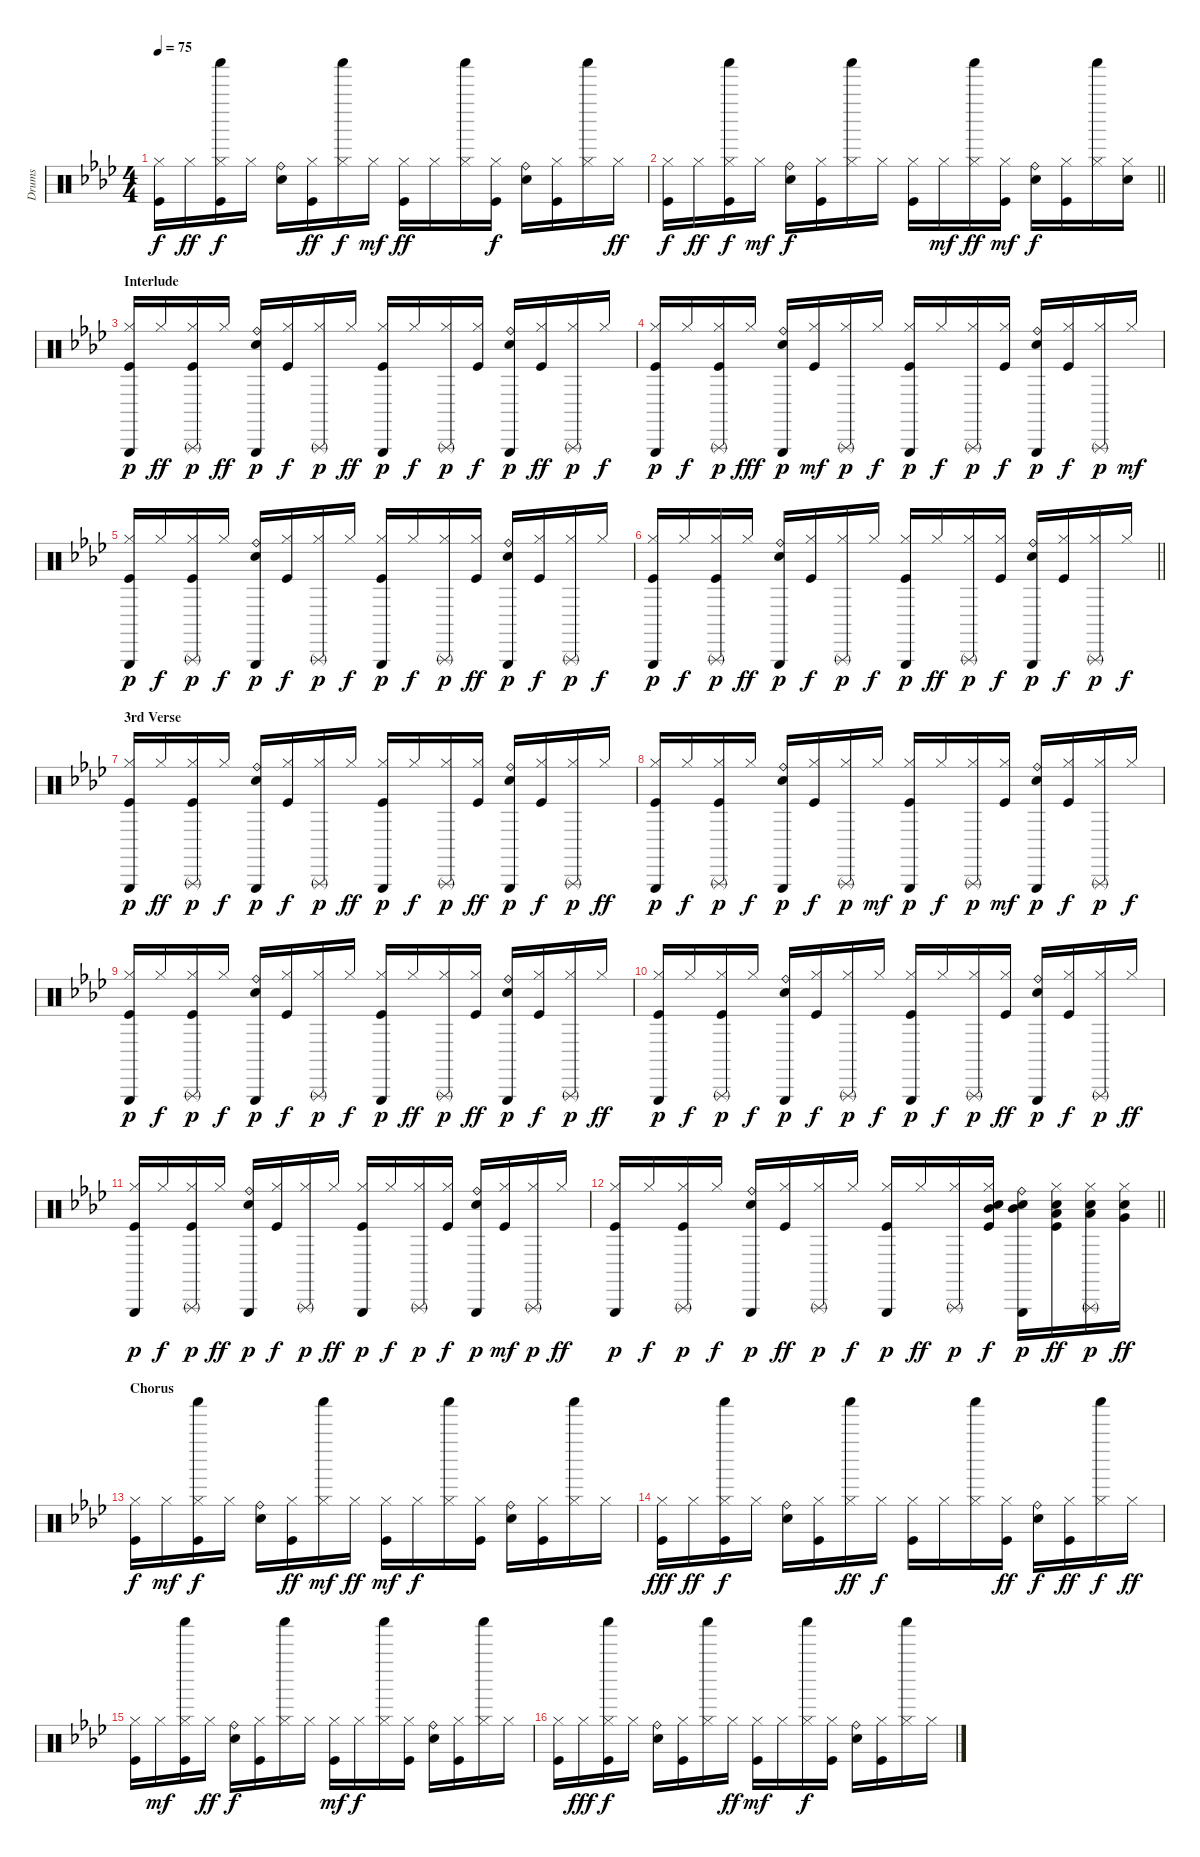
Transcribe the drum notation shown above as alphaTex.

\track ("Drums" "Drums") {instrument percussion}
\staff {score}
\articulation defaults
\ts (4 4)
\tempo 75
\clef neutral
\ks fminor
("Hi-Hat (closed)" "Kick (hit)").16{dy f} "Hi-Hat (closed)".16{dy ff} ("Shaker (hit)" "Hi-Hat (closed)" "Kick (hit)").16{dy f} "Hi-Hat (closed)".16 ("Ride (bell)" "Electric Snare (hit)").16 ("Hi-Hat (closed)" "Kick (hit)").16{dy ff} ("Shaker (hit)" "Hi-Hat (closed)").16{dy f} "Hi-Hat (closed)".16{dy mf} ("Hi-Hat (closed)" "Kick (hit)").16{dy ff} "Hi-Hat (closed)".16 ("Shaker (hit)" "Hi-Hat (closed)").16 ("Hi-Hat (closed)" "Kick (hit)").16{dy f} ("Ride (bell)" "Electric Snare (hit)").16 ("Hi-Hat (closed)" "Kick (hit)").16 ("Shaker (hit)" "Hi-Hat (closed)").16 "Hi-Hat (closed)".16{dy ff} |
\barLineRight lightlight
("Hi-Hat (closed)" "Kick (hit)").16{dy f} "Hi-Hat (closed)".16{dy ff} ("Shaker (hit)" "Hi-Hat (closed)" "Kick (hit)").16{dy f} "Hi-Hat (closed)".16{dy mf} ("Ride (bell)" "Electric Snare (hit)").16{dy f} ("Hi-Hat (closed)" "Kick (hit)").16 ("Shaker (hit)" "Hi-Hat (closed)").16 "Hi-Hat (closed)".16 ("Hi-Hat (closed)" "Kick (hit)").16 "Hi-Hat (closed)".16{dy mf} ("Shaker (hit)" "Hi-Hat (closed)").16{dy ff} ("Hi-Hat (closed)" "Kick (hit)").16{dy mf} ("Ride (bell)" "Electric Snare (hit)").16{dy f} ("Hi-Hat (closed)" "Kick (hit)").16 ("Shaker (hit)" "Hi-Hat (closed)").16 ("Hi-Hat (closed)" "Electric Snare (hit)").16 |
\section ("" "Interlude")
("Hi-Hat (closed)" "Triangle (hit)" "Kick (hit)").16{dy p} "Hi-Hat (closed)".16{dy ff} ("Hi-Hat (closed)" "Triangle (rnute)" "Kick (hit)").16{dy p} "Hi-Hat (closed)".16{dy ff} ("Ride (bell)" "Triangle (hit)" "Electric Snare (hit)").16{dy p} ("Hi-Hat (closed)" "Kick (hit)").16{dy f} ("Hi-Hat (closed)" "Triangle (rnute)").16{dy p} "Hi-Hat (closed)".16{dy ff} ("Hi-Hat (closed)" "Triangle (hit)" "Kick (hit)").16{dy p} "Hi-Hat (closed)".16{dy f} ("Hi-Hat (closed)" "Triangle (rnute)").16{dy p} ("Hi-Hat (closed)" "Kick (hit)").16{dy f} ("Ride (bell)" "Triangle (hit)" "Electric Snare (hit)").16{dy p} ("Hi-Hat (closed)" "Kick (hit)").16{dy ff} ("Hi-Hat (closed)" "Triangle (rnute)").16{dy p} "Hi-Hat (closed)".16{dy f} |
("Hi-Hat (closed)" "Triangle (hit)" "Kick (hit)").16{dy p} "Hi-Hat (closed)".16{dy f} ("Hi-Hat (closed)" "Triangle (rnute)" "Kick (hit)").16{dy p} "Hi-Hat (closed)".16{dy fff} ("Ride (bell)" "Triangle (hit)" "Electric Snare (hit)").16{dy p} ("Hi-Hat (closed)" "Kick (hit)").16{dy mf} ("Hi-Hat (closed)" "Triangle (rnute)").16{dy p} "Hi-Hat (closed)".16{dy f} ("Hi-Hat (closed)" "Triangle (hit)" "Kick (hit)").16{dy p} "Hi-Hat (closed)".16{dy f} ("Hi-Hat (closed)" "Triangle (rnute)").16{dy p} ("Hi-Hat (closed)" "Kick (hit)").16{dy f} ("Ride (bell)" "Triangle (hit)" "Electric Snare (hit)").16{dy p} ("Hi-Hat (closed)" "Kick (hit)").16{dy f} ("Hi-Hat (closed)" "Triangle (rnute)").16{dy p} "Hi-Hat (closed)".16{dy mf} |
("Hi-Hat (closed)" "Triangle (hit)" "Kick (hit)").16{dy p} "Hi-Hat (closed)".16{dy f} ("Hi-Hat (closed)" "Triangle (rnute)" "Kick (hit)").16{dy p} "Hi-Hat (closed)".16{dy f} ("Ride (bell)" "Triangle (hit)" "Electric Snare (hit)").16{dy p} ("Hi-Hat (closed)" "Kick (hit)").16{dy f} ("Hi-Hat (closed)" "Triangle (rnute)").16{dy p} "Hi-Hat (closed)".16{dy f} ("Hi-Hat (closed)" "Triangle (hit)" "Kick (hit)").16{dy p} "Hi-Hat (closed)".16{dy f} ("Hi-Hat (closed)" "Triangle (rnute)").16{dy p} ("Hi-Hat (closed)" "Kick (hit)").16{dy ff} ("Ride (bell)" "Triangle (hit)" "Electric Snare (hit)").16{dy p} ("Hi-Hat (closed)" "Kick (hit)").16{dy f} ("Hi-Hat (closed)" "Triangle (rnute)").16{dy p} "Hi-Hat (closed)".16{dy f} |
\barLineRight lightlight
("Hi-Hat (closed)" "Triangle (hit)" "Kick (hit)").16{dy p} "Hi-Hat (closed)".16{dy f} ("Hi-Hat (closed)" "Triangle (rnute)" "Kick (hit)").16{dy p} "Hi-Hat (closed)".16{dy ff} ("Ride (bell)" "Triangle (hit)" "Electric Snare (hit)").16{dy p} ("Hi-Hat (closed)" "Kick (hit)").16{dy f} ("Hi-Hat (closed)" "Triangle (rnute)").16{dy p} "Hi-Hat (closed)".16{dy f} ("Hi-Hat (closed)" "Triangle (hit)" "Kick (hit)").16{dy p} "Hi-Hat (closed)".16{dy ff} ("Hi-Hat (closed)" "Triangle (rnute)").16{dy p} ("Hi-Hat (closed)" "Kick (hit)").16{dy f} ("Ride (bell)" "Triangle (hit)" "Electric Snare (hit)").16{dy p} ("Hi-Hat (closed)" "Kick (hit)").16{dy f} ("Hi-Hat (closed)" "Triangle (rnute)").16{dy p} "Hi-Hat (closed)".16{dy f} |
\section ("" "3rd Verse")
("Hi-Hat (closed)" "Triangle (hit)" "Kick (hit)").16{dy p} "Hi-Hat (closed)".16{dy ff} ("Hi-Hat (closed)" "Triangle (rnute)" "Kick (hit)").16{dy p} "Hi-Hat (closed)".16{dy f} ("Ride (bell)" "Triangle (hit)" "Electric Snare (hit)").16{dy p} ("Hi-Hat (closed)" "Kick (hit)").16{dy f} ("Hi-Hat (closed)" "Triangle (rnute)").16{dy p} "Hi-Hat (closed)".16{dy ff} ("Hi-Hat (closed)" "Triangle (hit)" "Kick (hit)").16{dy p} "Hi-Hat (closed)".16{dy f} ("Hi-Hat (closed)" "Triangle (rnute)").16{dy p} ("Hi-Hat (closed)" "Kick (hit)").16{dy ff} ("Ride (bell)" "Triangle (hit)" "Electric Snare (hit)").16{dy p} ("Hi-Hat (closed)" "Kick (hit)").16{dy f} ("Hi-Hat (closed)" "Triangle (rnute)").16{dy p} "Hi-Hat (closed)".16{dy ff} |
("Hi-Hat (closed)" "Triangle (hit)" "Kick (hit)").16{dy p} "Hi-Hat (closed)".16{dy f} ("Hi-Hat (closed)" "Triangle (rnute)" "Kick (hit)").16{dy p} "Hi-Hat (closed)".16{dy f} ("Ride (bell)" "Triangle (hit)" "Electric Snare (hit)").16{dy p} ("Hi-Hat (closed)" "Kick (hit)").16{dy f} ("Hi-Hat (closed)" "Triangle (rnute)").16{dy p} "Hi-Hat (closed)".16{dy mf} ("Hi-Hat (closed)" "Triangle (hit)" "Kick (hit)").16{dy p} "Hi-Hat (closed)".16{dy f} ("Hi-Hat (closed)" "Triangle (rnute)").16{dy p} ("Hi-Hat (closed)" "Kick (hit)").16{dy mf} ("Ride (bell)" "Triangle (hit)" "Electric Snare (hit)").16{dy p} ("Hi-Hat (closed)" "Kick (hit)").16{dy f} ("Hi-Hat (closed)" "Triangle (rnute)").16{dy p} "Hi-Hat (closed)".16{dy f} |
("Hi-Hat (closed)" "Triangle (hit)" "Kick (hit)").16{dy p} "Hi-Hat (closed)".16{dy f} ("Hi-Hat (closed)" "Triangle (rnute)" "Kick (hit)").16{dy p} "Hi-Hat (closed)".16{dy f} ("Ride (bell)" "Triangle (hit)" "Electric Snare (hit)").16{dy p} ("Hi-Hat (closed)" "Kick (hit)").16{dy f} ("Hi-Hat (closed)" "Triangle (rnute)").16{dy p} "Hi-Hat (closed)".16{dy f} ("Hi-Hat (closed)" "Triangle (hit)" "Kick (hit)").16{dy p} "Hi-Hat (closed)".16{dy ff} ("Hi-Hat (closed)" "Triangle (rnute)").16{dy p} ("Hi-Hat (closed)" "Kick (hit)").16{dy ff} ("Ride (bell)" "Triangle (hit)" "Electric Snare (hit)").16{dy p} ("Hi-Hat (closed)" "Kick (hit)").16{dy f} ("Hi-Hat (closed)" "Triangle (rnute)").16{dy p} "Hi-Hat (closed)".16{dy ff} |
("Hi-Hat (closed)" "Triangle (hit)" "Kick (hit)").16{dy p} "Hi-Hat (closed)".16{dy f} ("Hi-Hat (closed)" "Triangle (rnute)" "Kick (hit)").16{dy p} "Hi-Hat (closed)".16{dy f} ("Ride (bell)" "Triangle (hit)" "Electric Snare (hit)").16{dy p} ("Hi-Hat (closed)" "Kick (hit)").16{dy f} ("Hi-Hat (closed)" "Triangle (rnute)").16{dy p} "Hi-Hat (closed)".16{dy f} ("Hi-Hat (closed)" "Triangle (hit)" "Kick (hit)").16{dy p} "Hi-Hat (closed)".16{dy f} ("Hi-Hat (closed)" "Triangle (rnute)").16{dy p} ("Hi-Hat (closed)" "Kick (hit)").16{dy ff} ("Ride (bell)" "Triangle (hit)" "Electric Snare (hit)").16{dy p} ("Hi-Hat (closed)" "Kick (hit)").16{dy f} ("Hi-Hat (closed)" "Triangle (rnute)").16{dy p} "Hi-Hat (closed)".16{dy ff} |
("Hi-Hat (closed)" "Triangle (hit)" "Kick (hit)").16{dy p} "Hi-Hat (closed)".16{dy f} ("Hi-Hat (closed)" "Triangle (rnute)" "Kick (hit)").16{dy p} "Hi-Hat (closed)".16{dy ff} ("Ride (bell)" "Triangle (hit)" "Electric Snare (hit)").16{dy p} ("Hi-Hat (closed)" "Kick (hit)").16{dy f} ("Hi-Hat (closed)" "Triangle (rnute)").16{dy p} "Hi-Hat (closed)".16{dy ff} ("Hi-Hat (closed)" "Triangle (hit)" "Kick (hit)").16{dy p} "Hi-Hat (closed)".16{dy f} ("Hi-Hat (closed)" "Triangle (rnute)").16{dy p} ("Hi-Hat (closed)" "Kick (hit)").16{dy f} ("Ride (bell)" "Triangle (hit)" "Electric Snare (hit)").16{dy p} ("Hi-Hat (closed)" "Kick (hit)").16{dy mf} ("Hi-Hat (closed)" "Triangle (rnute)").16{dy p} "Hi-Hat (closed)".16{dy ff} |
\barLineRight lightlight
("Hi-Hat (closed)" "Triangle (hit)" "Kick (hit)").16{dy p} "Hi-Hat (closed)".16{dy f} ("Hi-Hat (closed)" "Triangle (rnute)" "Kick (hit)").16{dy p} "Hi-Hat (closed)".16{dy f} ("Ride (bell)" "Triangle (hit)" "Electric Snare (hit)").16{dy p} ("Hi-Hat (closed)" "Kick (hit)").16{dy ff} ("Hi-Hat (closed)" "Triangle (rnute)").16{dy p} "Hi-Hat (closed)".16{dy f} ("Hi-Hat (closed)" "Triangle (hit)" "Kick (hit)").16{dy p} "Hi-Hat (closed)".16{dy ff} ("Hi-Hat (closed)" "Triangle (rnute)").16{dy p} ("Hi-Hat (closed)" "Electric Snare (hit)" "Kick (hit)" "Mid Tom (hit)").16{dy f} ("Ride (bell)" "Triangle (hit)" "Electric Snare (hit)" "Mid Tom (hit)").16{dy p} ("Hi-Hat (closed)" "Electric Snare (hit)" "Kick (hit)" "Low Tom (hit)").16{dy ff} ("Hi-Hat (closed)" "Triangle (rnute)" "Electric Snare (hit)" "Low Tom (hit)").16{dy p} ("Hi-Hat (closed)" "Electric Snare (hit)" "Very Low Tom (hit)").16{dy ff} |
\section ("" "Chorus")
("Hi-Hat (closed)" "Kick (hit)").16{dy f} "Hi-Hat (closed)".16{dy mf} ("Shaker (hit)" "Hi-Hat (closed)" "Kick (hit)").16{dy f} "Hi-Hat (closed)".16 ("Ride (bell)" "Electric Snare (hit)").16 ("Hi-Hat (closed)" "Kick (hit)").16{dy ff} ("Shaker (hit)" "Hi-Hat (closed)").16{dy mf} "Hi-Hat (closed)".16{dy ff} ("Hi-Hat (closed)" "Kick (hit)").16{dy mf} "Hi-Hat (closed)".16{dy f} ("Shaker (hit)" "Hi-Hat (closed)").16 ("Hi-Hat (closed)" "Kick (hit)").16 ("Ride (bell)" "Electric Snare (hit)").16 ("Hi-Hat (closed)" "Kick (hit)").16 ("Shaker (hit)" "Hi-Hat (closed)").16 "Hi-Hat (closed)".16 |
("Hi-Hat (closed)" "Kick (hit)").16{dy fff} "Hi-Hat (closed)".16{dy ff} ("Shaker (hit)" "Hi-Hat (closed)" "Kick (hit)").16{dy f} "Hi-Hat (closed)".16 ("Ride (bell)" "Electric Snare (hit)").16 ("Hi-Hat (closed)" "Kick (hit)").16 ("Shaker (hit)" "Hi-Hat (closed)").16{dy ff} "Hi-Hat (closed)".16{dy f} ("Hi-Hat (closed)" "Kick (hit)").16 "Hi-Hat (closed)".16 ("Shaker (hit)" "Hi-Hat (closed)").16 ("Hi-Hat (closed)" "Kick (hit)").16{dy ff} ("Ride (bell)" "Electric Snare (hit)").16{dy f} ("Hi-Hat (closed)" "Kick (hit)").16{dy ff} ("Shaker (hit)" "Hi-Hat (closed)").16{dy f} "Hi-Hat (closed)".16{dy ff} |
("Hi-Hat (closed)" "Kick (hit)").16 "Hi-Hat (closed)".16{dy mf} ("Shaker (hit)" "Hi-Hat (closed)" "Kick (hit)").16 "Hi-Hat (closed)".16{dy ff} ("Ride (bell)" "Electric Snare (hit)").16{dy f} ("Hi-Hat (closed)" "Kick (hit)").16 ("Shaker (hit)" "Hi-Hat (closed)").16 "Hi-Hat (closed)".16 ("Hi-Hat (closed)" "Kick (hit)").16{dy mf} "Hi-Hat (closed)".16{dy f} ("Shaker (hit)" "Hi-Hat (closed)").16 ("Hi-Hat (closed)" "Kick (hit)").16 ("Ride (bell)" "Electric Snare (hit)").16 ("Hi-Hat (closed)" "Kick (hit)").16 ("Shaker (hit)" "Hi-Hat (closed)").16 "Hi-Hat (closed)".16 |
("Hi-Hat (closed)" "Kick (hit)").16 "Hi-Hat (closed)".16{dy fff} ("Shaker (hit)" "Hi-Hat (closed)" "Kick (hit)").16{dy f} "Hi-Hat (closed)".16 ("Ride (bell)" "Electric Snare (hit)").16 ("Hi-Hat (closed)" "Kick (hit)").16 ("Shaker (hit)" "Hi-Hat (closed)").16 "Hi-Hat (closed)".16{dy ff} ("Hi-Hat (closed)" "Kick (hit)").16{dy mf} "Hi-Hat (closed)".16 ("Shaker (hit)" "Hi-Hat (closed)").16{dy f} ("Hi-Hat (closed)" "Kick (hit)").16 ("Ride (bell)" "Electric Snare (hit)").16 ("Hi-Hat (closed)" "Kick (hit)").16 ("Shaker (hit)" "Hi-Hat (closed)").16 "Hi-Hat (closed)".16
